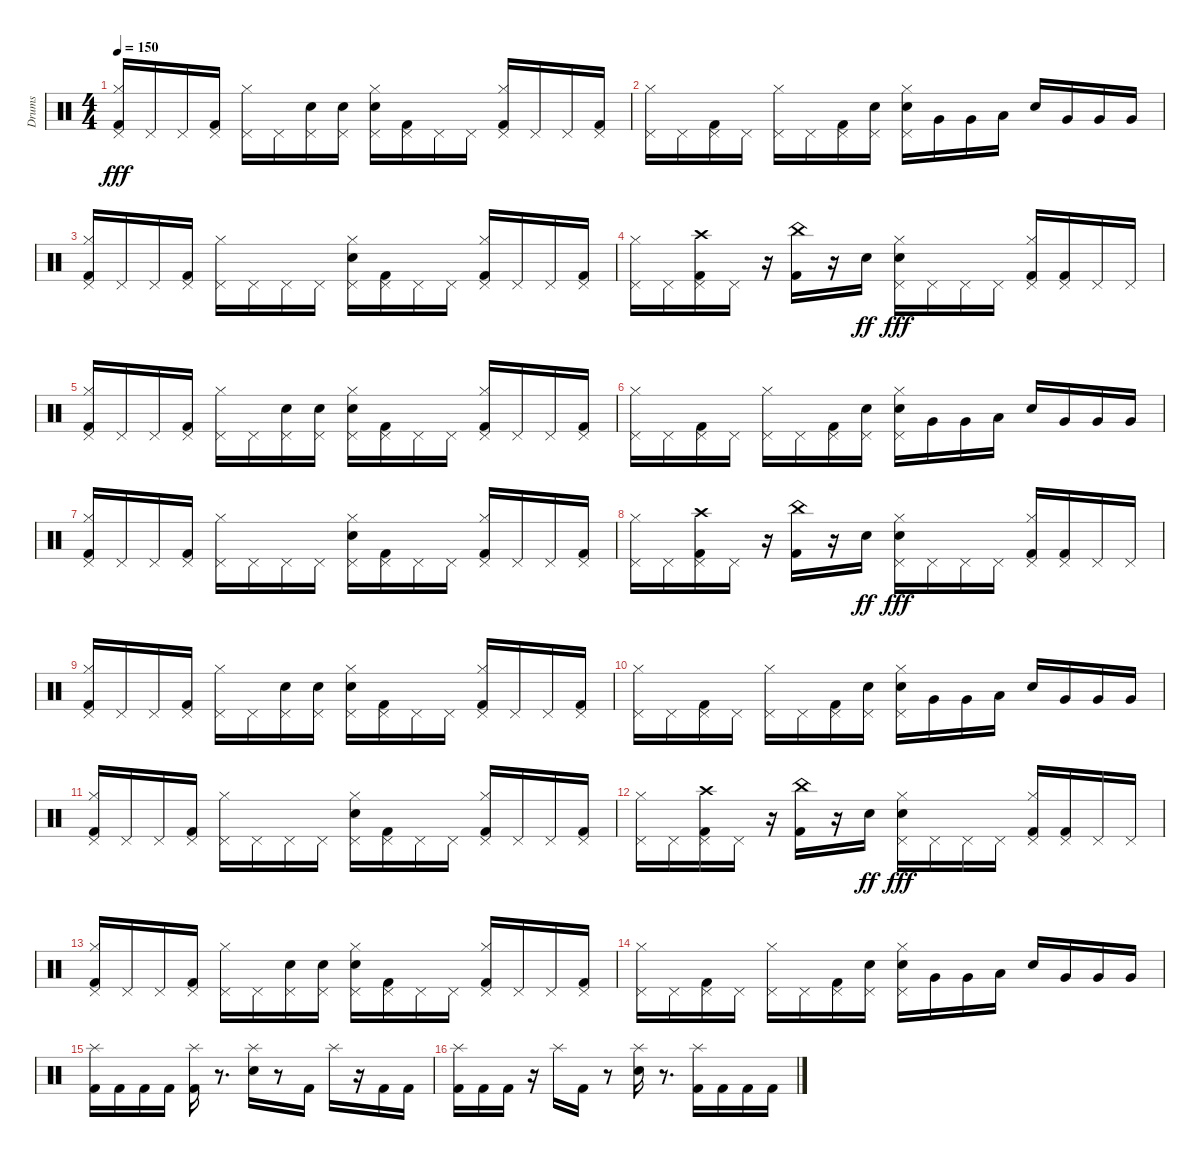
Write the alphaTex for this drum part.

\track ("Drums" "Drums") {instrument percussion}
\staff {score}
\articulation defaults
\ts (4 4)
\tempo 150
\clef neutral
\ks c
("Kick (hit) 2" "Hi-Hat (closed)" "Pedal Hi-Hat (hit)").16{dy fff} "Pedal Hi-Hat (hit)".16 "Pedal Hi-Hat (hit)".16 ("Kick (hit) 2" "Pedal Hi-Hat (hit)").16 ("Hi-Hat (closed)" "Pedal Hi-Hat (hit)").16 "Pedal Hi-Hat (hit)".16 ("Snare (hit) 2" "Pedal Hi-Hat (hit)").16 ("Snare (hit) 2" "Pedal Hi-Hat (hit)").16 ("Snare (hit) 2" "Hi-Hat (closed)" "Pedal Hi-Hat (hit)").16 ("Kick (hit) 2" "Pedal Hi-Hat (hit)").16 "Pedal Hi-Hat (hit)".16 "Pedal Hi-Hat (hit)".16 ("Kick (hit) 2" "Hi-Hat (closed)" "Pedal Hi-Hat (hit)").16 "Pedal Hi-Hat (hit)".16 "Pedal Hi-Hat (hit)".16 ("Kick (hit) 2" "Pedal Hi-Hat (hit)").16 |
("Hi-Hat (closed)" "Pedal Hi-Hat (hit)").16 "Pedal Hi-Hat (hit)".16 ("Kick (hit) 2" "Pedal Hi-Hat (hit)").16 "Pedal Hi-Hat (hit)".16 ("Hi-Hat (closed)" "Pedal Hi-Hat (hit)").16 "Pedal Hi-Hat (hit)".16 ("Kick (hit) 2" "Pedal Hi-Hat (hit)").16 ("Snare (hit) 2" "Pedal Hi-Hat (hit)").16 ("Snare (hit) 2" "Hi-Hat (closed)" "Pedal Hi-Hat (hit)").16 "Very Low Tom (hit)".16 "Very Low Tom (hit)".16 "Low Floor Tom (hit)".16 "Snare (hit) 2".16 "Very Low Tom (hit)".16 "Very Low Tom (hit)".16 "Very Low Tom (hit)".16 |
("Kick (hit) 2" "Hi-Hat (closed)" "Pedal Hi-Hat (hit)").16 "Pedal Hi-Hat (hit)".16 "Pedal Hi-Hat (hit)".16 ("Kick (hit) 2" "Pedal Hi-Hat (hit)").16 ("Hi-Hat (closed)" "Pedal Hi-Hat (hit)").16 "Pedal Hi-Hat (hit)".16 "Pedal Hi-Hat (hit)".16 "Pedal Hi-Hat (hit)".16 ("Snare (hit) 2" "Hi-Hat (closed)" "Pedal Hi-Hat (hit)").16 ("Kick (hit) 2" "Pedal Hi-Hat (hit)").16 "Pedal Hi-Hat (hit)".16 "Pedal Hi-Hat (hit)".16 ("Kick (hit) 2" "Hi-Hat (closed)" "Pedal Hi-Hat (hit)").16 "Pedal Hi-Hat (hit)".16 "Pedal Hi-Hat (hit)".16 ("Kick (hit) 2" "Pedal Hi-Hat (hit)").16 |
("Hi-Hat (closed)" "Pedal Hi-Hat (hit)").16 "Pedal Hi-Hat (hit)".16 ("Kick (hit) 2" "Pedal Hi-Hat (hit)" "Crash high (hit)").16 "Pedal Hi-Hat (hit)".16 r.16 ("Kick (hit) 2" "China (hit)").16 r.16 "Snare (hit) 2".16{dy ff} ("Snare (hit) 2" "Hi-Hat (closed)" "Pedal Hi-Hat (hit)").16{dy fff} "Pedal Hi-Hat (hit)".16 "Pedal Hi-Hat (hit)".16 "Pedal Hi-Hat (hit)".16 ("Kick (hit) 2" "Hi-Hat (closed)" "Pedal Hi-Hat (hit)").16 ("Kick (hit) 2" "Pedal Hi-Hat (hit)").16 "Pedal Hi-Hat (hit)".16 "Pedal Hi-Hat (hit)".16 |
("Kick (hit) 2" "Hi-Hat (closed)" "Pedal Hi-Hat (hit)").16 "Pedal Hi-Hat (hit)".16 "Pedal Hi-Hat (hit)".16 ("Kick (hit) 2" "Pedal Hi-Hat (hit)").16 ("Hi-Hat (closed)" "Pedal Hi-Hat (hit)").16 "Pedal Hi-Hat (hit)".16 ("Snare (hit) 2" "Pedal Hi-Hat (hit)").16 ("Snare (hit) 2" "Pedal Hi-Hat (hit)").16 ("Snare (hit) 2" "Hi-Hat (closed)" "Pedal Hi-Hat (hit)").16 ("Kick (hit) 2" "Pedal Hi-Hat (hit)").16 "Pedal Hi-Hat (hit)".16 "Pedal Hi-Hat (hit)".16 ("Kick (hit) 2" "Hi-Hat (closed)" "Pedal Hi-Hat (hit)").16 "Pedal Hi-Hat (hit)".16 "Pedal Hi-Hat (hit)".16 ("Kick (hit) 2" "Pedal Hi-Hat (hit)").16 |
("Hi-Hat (closed)" "Pedal Hi-Hat (hit)").16 "Pedal Hi-Hat (hit)".16 ("Kick (hit) 2" "Pedal Hi-Hat (hit)").16 "Pedal Hi-Hat (hit)".16 ("Hi-Hat (closed)" "Pedal Hi-Hat (hit)").16 "Pedal Hi-Hat (hit)".16 ("Kick (hit) 2" "Pedal Hi-Hat (hit)").16 ("Snare (hit) 2" "Pedal Hi-Hat (hit)").16 ("Snare (hit) 2" "Hi-Hat (closed)" "Pedal Hi-Hat (hit)").16 "Very Low Tom (hit)".16 "Very Low Tom (hit)".16 "Low Floor Tom (hit)".16 "Snare (hit) 2".16 "Very Low Tom (hit)".16 "Very Low Tom (hit)".16 "Very Low Tom (hit)".16 |
("Kick (hit) 2" "Hi-Hat (closed)" "Pedal Hi-Hat (hit)").16 "Pedal Hi-Hat (hit)".16 "Pedal Hi-Hat (hit)".16 ("Kick (hit) 2" "Pedal Hi-Hat (hit)").16 ("Hi-Hat (closed)" "Pedal Hi-Hat (hit)").16 "Pedal Hi-Hat (hit)".16 "Pedal Hi-Hat (hit)".16 "Pedal Hi-Hat (hit)".16 ("Snare (hit) 2" "Hi-Hat (closed)" "Pedal Hi-Hat (hit)").16 ("Kick (hit) 2" "Pedal Hi-Hat (hit)").16 "Pedal Hi-Hat (hit)".16 "Pedal Hi-Hat (hit)".16 ("Kick (hit) 2" "Hi-Hat (closed)" "Pedal Hi-Hat (hit)").16 "Pedal Hi-Hat (hit)".16 "Pedal Hi-Hat (hit)".16 ("Kick (hit) 2" "Pedal Hi-Hat (hit)").16 |
("Hi-Hat (closed)" "Pedal Hi-Hat (hit)").16 "Pedal Hi-Hat (hit)".16 ("Kick (hit) 2" "Pedal Hi-Hat (hit)" "Crash high (hit)").16 "Pedal Hi-Hat (hit)".16 r.16 ("Kick (hit) 2" "China (hit)").16 r.16 "Snare (hit) 2".16{dy ff} ("Snare (hit) 2" "Hi-Hat (closed)" "Pedal Hi-Hat (hit)").16{dy fff} "Pedal Hi-Hat (hit)".16 "Pedal Hi-Hat (hit)".16 "Pedal Hi-Hat (hit)".16 ("Kick (hit) 2" "Hi-Hat (closed)" "Pedal Hi-Hat (hit)").16 ("Kick (hit) 2" "Pedal Hi-Hat (hit)").16 "Pedal Hi-Hat (hit)".16 "Pedal Hi-Hat (hit)".16 |
("Kick (hit) 2" "Hi-Hat (closed)" "Pedal Hi-Hat (hit)").16 "Pedal Hi-Hat (hit)".16 "Pedal Hi-Hat (hit)".16 ("Kick (hit) 2" "Pedal Hi-Hat (hit)").16 ("Hi-Hat (closed)" "Pedal Hi-Hat (hit)").16 "Pedal Hi-Hat (hit)".16 ("Snare (hit) 2" "Pedal Hi-Hat (hit)").16 ("Snare (hit) 2" "Pedal Hi-Hat (hit)").16 ("Snare (hit) 2" "Hi-Hat (closed)" "Pedal Hi-Hat (hit)").16 ("Kick (hit) 2" "Pedal Hi-Hat (hit)").16 "Pedal Hi-Hat (hit)".16 "Pedal Hi-Hat (hit)".16 ("Kick (hit) 2" "Hi-Hat (closed)" "Pedal Hi-Hat (hit)").16 "Pedal Hi-Hat (hit)".16 "Pedal Hi-Hat (hit)".16 ("Kick (hit) 2" "Pedal Hi-Hat (hit)").16 |
("Hi-Hat (closed)" "Pedal Hi-Hat (hit)").16 "Pedal Hi-Hat (hit)".16 ("Kick (hit) 2" "Pedal Hi-Hat (hit)").16 "Pedal Hi-Hat (hit)".16 ("Hi-Hat (closed)" "Pedal Hi-Hat (hit)").16 "Pedal Hi-Hat (hit)".16 ("Kick (hit) 2" "Pedal Hi-Hat (hit)").16 ("Snare (hit) 2" "Pedal Hi-Hat (hit)").16 ("Snare (hit) 2" "Hi-Hat (closed)" "Pedal Hi-Hat (hit)").16 "Very Low Tom (hit)".16 "Very Low Tom (hit)".16 "Low Floor Tom (hit)".16 "Snare (hit) 2".16 "Very Low Tom (hit)".16 "Very Low Tom (hit)".16 "Very Low Tom (hit)".16 |
("Hi-Hat (closed)" "Kick (hit) 2" "Pedal Hi-Hat (hit)").16 "Pedal Hi-Hat (hit)".16 "Pedal Hi-Hat (hit)".16 ("Kick (hit) 2" "Pedal Hi-Hat (hit)").16 ("Hi-Hat (closed)" "Pedal Hi-Hat (hit)").16 "Pedal Hi-Hat (hit)".16 "Pedal Hi-Hat (hit)".16 "Pedal Hi-Hat (hit)".16 ("Hi-Hat (closed)" "Snare (hit) 2" "Pedal Hi-Hat (hit)").16 ("Kick (hit) 2" "Pedal Hi-Hat (hit)").16 "Pedal Hi-Hat (hit)".16 "Pedal Hi-Hat (hit)".16 ("Hi-Hat (closed)" "Kick (hit) 2" "Pedal Hi-Hat (hit)").16 "Pedal Hi-Hat (hit)".16 "Pedal Hi-Hat (hit)".16 ("Kick (hit) 2" "Pedal Hi-Hat (hit)").16 |
("Hi-Hat (closed)" "Pedal Hi-Hat (hit)").16 "Pedal Hi-Hat (hit)".16 ("Kick (hit) 2" "Pedal Hi-Hat (hit)" "Crash high (hit)").16 "Pedal Hi-Hat (hit)".16 r.16 ("Kick (hit) 2" "China (hit)").16 r.16 "Snare (hit) 2".16{dy ff} ("Hi-Hat (closed)" "Snare (hit) 2" "Pedal Hi-Hat (hit)").16{dy fff} "Pedal Hi-Hat (hit)".16 "Pedal Hi-Hat (hit)".16 "Pedal Hi-Hat (hit)".16 ("Hi-Hat (closed)" "Kick (hit) 2" "Pedal Hi-Hat (hit)").16 ("Kick (hit) 2" "Pedal Hi-Hat (hit)").16 "Pedal Hi-Hat (hit)".16 "Pedal Hi-Hat (hit)".16 |
("Hi-Hat (closed)" "Kick (hit) 2" "Pedal Hi-Hat (hit)").16 "Pedal Hi-Hat (hit)".16 "Pedal Hi-Hat (hit)".16 ("Kick (hit) 2" "Pedal Hi-Hat (hit)").16 ("Hi-Hat (closed)" "Pedal Hi-Hat (hit)").16 "Pedal Hi-Hat (hit)".16 ("Snare (hit) 2" "Pedal Hi-Hat (hit)").16 ("Snare (hit) 2" "Pedal Hi-Hat (hit)").16 ("Hi-Hat (closed)" "Snare (hit) 2" "Pedal Hi-Hat (hit)").16 ("Kick (hit) 2" "Pedal Hi-Hat (hit)").16 "Pedal Hi-Hat (hit)".16 "Pedal Hi-Hat (hit)".16 ("Hi-Hat (closed)" "Kick (hit) 2" "Pedal Hi-Hat (hit)").16 "Pedal Hi-Hat (hit)".16 "Pedal Hi-Hat (hit)".16 ("Kick (hit) 2" "Pedal Hi-Hat (hit)").16 |
("Hi-Hat (closed)" "Pedal Hi-Hat (hit)").16 "Pedal Hi-Hat (hit)".16 ("Kick (hit) 2" "Pedal Hi-Hat (hit)").16 "Pedal Hi-Hat (hit)".16 ("Hi-Hat (closed)" "Pedal Hi-Hat (hit)").16 "Pedal Hi-Hat (hit)".16 ("Kick (hit) 2" "Pedal Hi-Hat (hit)").16 ("Snare (hit) 2" "Pedal Hi-Hat (hit)").16 ("Hi-Hat (closed)" "Snare (hit) 2" "Pedal Hi-Hat (hit)").16 "Very Low Tom (hit)".16 "Very Low Tom (hit)".16 "Low Floor Tom (hit)".16 "Snare (hit) 2".16 "Very Low Tom (hit)".16 "Very Low Tom (hit)".16 "Very Low Tom (hit)".16 |
("Kick (hit) 2" "Splash (hit)").16 "Kick (hit) 2".16 "Kick (hit) 2".16 "Kick (hit) 2".16 ("Kick (hit) 2" "Splash (hit)").16 r.8{d} ("Snare (hit) 2" "Splash (hit)").16 r.8 "Kick (hit) 2".16 "Splash (hit)".16 r.16 "Kick (hit) 2".16 "Kick (hit) 2".16 |
("Kick (hit) 2" "Splash (hit)").16 "Kick (hit) 2".16 "Kick (hit) 2".16 r.16 "Splash (hit)".16 "Kick (hit) 2".16 r.8 ("Snare (hit) 2" "Splash (hit)").16 r.8{d} ("Kick (hit) 2" "Splash (hit)").16 "Kick (hit) 2".16 "Kick (hit) 2".16 "Kick (hit) 2".16
